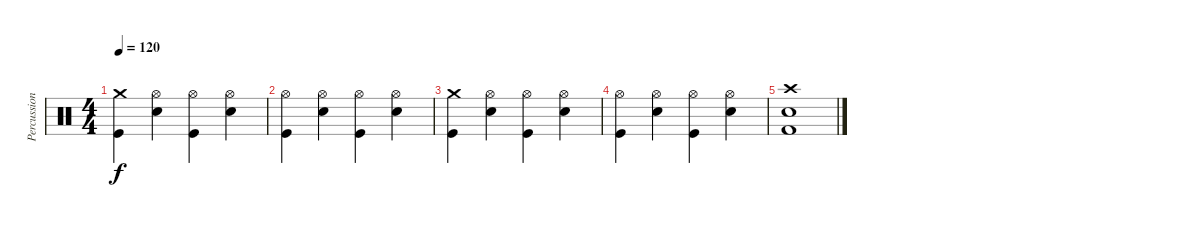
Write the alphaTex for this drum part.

\track ("Percussion" "Percussion") {instrument percussion}
\staff {score}
\articulation defaults
\ts (4 4)
\tempo 120
\clef neutral
\ks c
("Crash medium (hit)" "Kick (hit)").4{dy f} ("Hi-Hat (open)" "Snare (hit) 2").4 ("Hi-Hat (open)" "Kick (hit)").4 ("Hi-Hat (open)" "Snare (hit) 2").4 |
("Hi-Hat (open)" "Kick (hit)").4 ("Hi-Hat (open)" "Snare (hit) 2").4 ("Hi-Hat (open)" "Kick (hit)").4 ("Hi-Hat (open)" "Snare (hit) 2").4 |
("Crash medium (hit)" "Kick (hit)").4 ("Hi-Hat (open)" "Snare (hit) 2").4 ("Hi-Hat (open)" "Kick (hit)").4 ("Hi-Hat (open)" "Snare (hit) 2").4 |
("Hi-Hat (open)" "Kick (hit)").4 ("Hi-Hat (open)" "Snare (hit) 2").4 ("Hi-Hat (open)" "Kick (hit)").4 ("Hi-Hat (open)" "Snare (hit) 2").4 |
("Crash high (hit)" "Snare (hit) 2" "Kick (hit) 2").1
